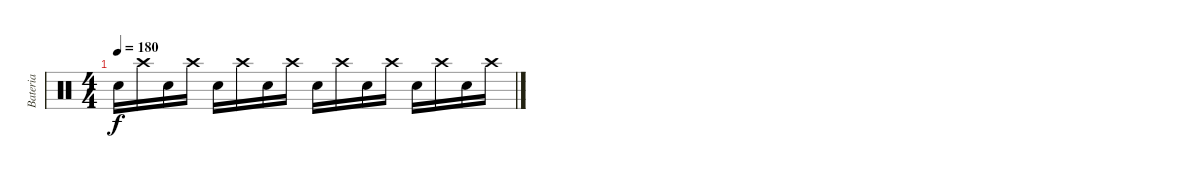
\track ("Bateria" "Bateria") {instrument percussion}
\staff {score}
\articulation defaults
\ts (4 4)
\tempo 180
\clef neutral
\ks c "Electric Snare (hit)".16{dy f} "Crash high (hit)".16 "Electric Snare (hit)".16 "Crash high (hit)".16 "Electric Snare (hit)".16 "Crash high (hit)".16 "Electric Snare (hit)".16 "Crash high (hit)".16 "Electric Snare (hit)".16 "Crash high (hit)".16 "Electric Snare (hit)".16 "Crash high (hit)".16 "Electric Snare (hit)".16 "Crash high (hit)".16 "Electric Snare (hit)".16 "Crash high (hit)".16
